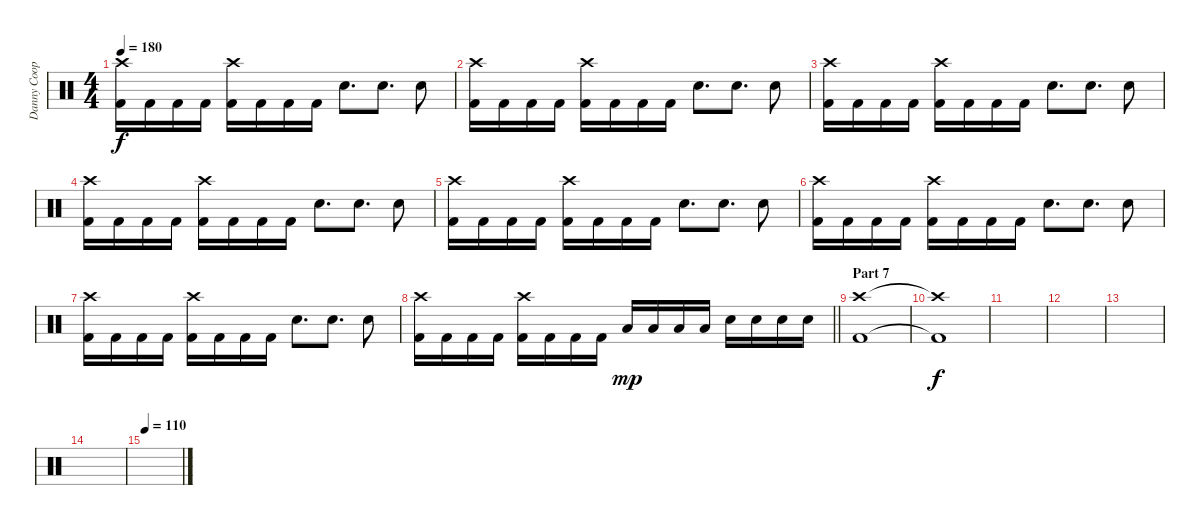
\track ("Danny Cooper" "Danny Coop") {instrument percussion}
\staff {score}
\articulation defaults
\ts (4 4)
\tempo 180
\clef neutral
\ks c
("Crash high (hit)" "Kick (hit) 2").16{dy f} "Kick (hit) 2".16 "Kick (hit) 2".16 "Kick (hit) 2".16 ("Crash high (hit)" "Kick (hit) 2").16 "Kick (hit) 2".16 "Kick (hit) 2".16 "Kick (hit) 2".16 "Snare (hit) 2".8{d} "Snare (hit) 2".8{d} "Snare (hit) 2".8 |
("Crash high (hit)" "Kick (hit) 2").16 "Kick (hit) 2".16 "Kick (hit) 2".16 "Kick (hit) 2".16 ("Crash high (hit)" "Kick (hit) 2").16 "Kick (hit) 2".16 "Kick (hit) 2".16 "Kick (hit) 2".16 "Snare (hit) 2".8{d} "Snare (hit) 2".8{d} "Snare (hit) 2".8 |
("Crash high (hit)" "Kick (hit) 2").16 "Kick (hit) 2".16 "Kick (hit) 2".16 "Kick (hit) 2".16 ("Crash high (hit)" "Kick (hit) 2").16 "Kick (hit) 2".16 "Kick (hit) 2".16 "Kick (hit) 2".16 "Snare (hit) 2".8{d} "Snare (hit) 2".8{d} "Snare (hit) 2".8 |
("Crash high (hit)" "Kick (hit) 2").16 "Kick (hit) 2".16 "Kick (hit) 2".16 "Kick (hit) 2".16 ("Crash high (hit)" "Kick (hit) 2").16 "Kick (hit) 2".16 "Kick (hit) 2".16 "Kick (hit) 2".16 "Snare (hit) 2".8{d} "Snare (hit) 2".8{d} "Snare (hit) 2".8 |
("Crash high (hit)" "Kick (hit) 2").16 "Kick (hit) 2".16 "Kick (hit) 2".16 "Kick (hit) 2".16 ("Crash high (hit)" "Kick (hit) 2").16 "Kick (hit) 2".16 "Kick (hit) 2".16 "Kick (hit) 2".16 "Snare (hit) 2".8{d} "Snare (hit) 2".8{d} "Snare (hit) 2".8 |
("Crash high (hit)" "Kick (hit) 2").16 "Kick (hit) 2".16 "Kick (hit) 2".16 "Kick (hit) 2".16 ("Crash high (hit)" "Kick (hit) 2").16 "Kick (hit) 2".16 "Kick (hit) 2".16 "Kick (hit) 2".16 "Snare (hit) 2".8{d} "Snare (hit) 2".8{d} "Snare (hit) 2".8 |
("Crash high (hit)" "Kick (hit) 2").16 "Kick (hit) 2".16 "Kick (hit) 2".16 "Kick (hit) 2".16 ("Crash high (hit)" "Kick (hit) 2").16 "Kick (hit) 2".16 "Kick (hit) 2".16 "Kick (hit) 2".16 "Snare (hit) 2".8{d} "Snare (hit) 2".8{d} "Snare (hit) 2".8 |
\barLineRight lightlight
("Crash high (hit)" "Kick (hit) 2").16 "Kick (hit) 2".16 "Kick (hit) 2".16 "Kick (hit) 2".16 ("Crash high (hit)" "Kick (hit) 2").16 "Kick (hit) 2".16 "Kick (hit) 2".16 "Kick (hit) 2".16 "Low Tom (hit)".16{dy mp} "Low Tom (hit)".16 "Low Tom (hit)".16 "Low Tom (hit)".16 "Snare (hit) 2".16 "Snare (hit) 2".16 "Snare (hit) 2".16 "Snare (hit) 2".16 |
\section ("" "Part 7")
("Crash high (hit)" "Kick (hit) 2").1 |
("Crash high (hit)"{t} "Kick (hit) 2"{t}).1{dy f} |
|
|
|
|
\tempo 110
